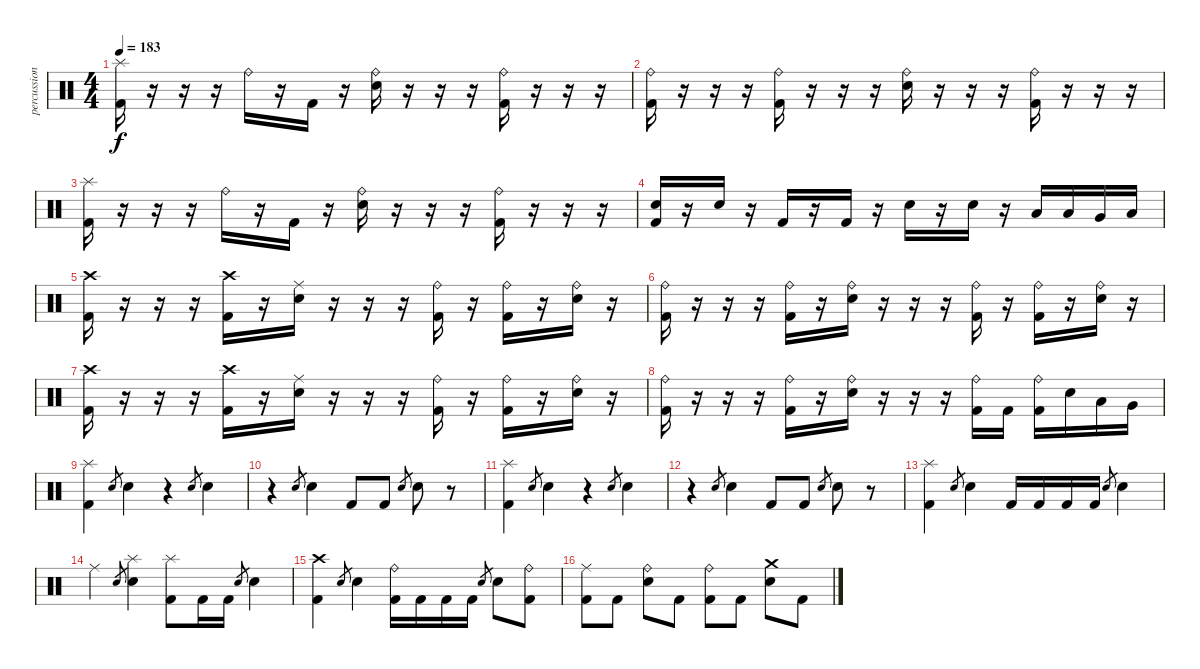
\track ("percussion" "percussion") {instrument percussion}
\staff {score}
\articulation defaults
\ts (4 4)
\tempo 183
\clef neutral
\ks c
("Splash (hit)" "Kick (hit) 2").16{dy f} r.16 r.16 r.16 "Ride (bell)".16 r.16 "Kick (hit) 2".16 r.16 ("Ride (bell)" "Electric Snare (hit)").16 r.16 r.16 r.16 ("Ride (bell)" "Kick (hit) 2").16 r.16 r.16 r.16 |
("Ride (bell)" "Kick (hit) 2").16 r.16 r.16 r.16 ("Ride (bell)" "Kick (hit) 2").16 r.16 r.16 r.16 ("Ride (bell)" "Electric Snare (hit)").16 r.16 r.16 r.16 ("Ride (bell)" "Kick (hit) 2").16 r.16 r.16 r.16 |
("Splash (hit)" "Kick (hit) 2").16 r.16 r.16 r.16 "Ride (bell)".16 r.16 "Kick (hit) 2".16 r.16 ("Ride (bell)" "Electric Snare (hit)").16 r.16 r.16 r.16 ("Ride (bell)" "Kick (hit) 2").16 r.16 r.16 r.16 |
("Electric Snare (hit)" "Kick (hit) 2").16 r.16 "Electric Snare (hit)".16 r.16 "Kick (hit) 2".16 r.16 "Kick (hit) 2".16 r.16 "Electric Snare (hit)".16 r.16 "Electric Snare (hit)".16 r.16 "Low Tom (hit)".16 "Low Tom (hit)".16 "Very Low Tom (hit)".16 "Low Floor Tom (hit)".16 |
("Crash high (hit)" "Kick (hit) 2").16 r.16 r.16 r.16 ("Crash high (hit)" "Kick (hit) 2").16 r.16 ("Ride (middle)" "Electric Snare (hit)").16 r.16 r.16 r.16 ("Ride (bell)" "Kick (hit) 2").16 r.16 ("Ride (bell)" "Kick (hit) 2").16 r.16 ("Ride (bell)" "Electric Snare (hit)").16 r.16 |
("Ride (bell)" "Kick (hit) 2").16 r.16 r.16 r.16 ("Ride (bell)" "Kick (hit) 2").16 r.16 ("Ride (bell)" "Electric Snare (hit)").16 r.16 r.16 r.16 ("Ride (bell)" "Kick (hit) 2").16 r.16 ("Ride (bell)" "Kick (hit) 2").16 r.16 ("Ride (bell)" "Electric Snare (hit)").16 r.16 |
("Crash high (hit)" "Kick (hit) 2").16 r.16 r.16 r.16 ("Crash high (hit)" "Kick (hit) 2").16 r.16 ("Ride (middle)" "Electric Snare (hit)").16 r.16 r.16 r.16 ("Ride (bell)" "Kick (hit) 2").16 r.16 ("Ride (bell)" "Kick (hit) 2").16 r.16 ("Ride (bell)" "Electric Snare (hit)").16 r.16 |
("Ride (bell)" "Kick (hit) 2").16 r.16 r.16 r.16 ("Ride (bell)" "Kick (hit) 2").16 r.16 ("Ride (bell)" "Electric Snare (hit)").16 r.16 r.16 r.16 ("Ride (bell)" "Kick (hit) 2").16 "Kick (hit) 2".16 ("Ride (bell)" "Kick (hit) 2").16 "Electric Snare (hit)".16 "Low Tom (hit)".16 "Very Low Tom (hit)".16 |
("Splash (hit)" "Kick (hit) 2").4 "Electric Snare (hit)".8{gr} "Electric Snare (hit)".4 r.4 "Electric Snare (hit)".8{gr} "Electric Snare (hit)".4 |
r.4 "Electric Snare (hit)".8{gr} "Electric Snare (hit)".4 "Kick (hit) 2".8 "Kick (hit) 2".8 "Electric Snare (hit)".8{gr} "Electric Snare (hit)".8 r.8 |
("Splash (hit)" "Kick (hit) 2").4 "Electric Snare (hit)".8{gr} "Electric Snare (hit)".4 r.4 "Electric Snare (hit)".8{gr} "Electric Snare (hit)".4 |
r.4 "Electric Snare (hit)".8{gr} "Electric Snare (hit)".4 "Kick (hit) 2".8 "Kick (hit) 2".8 "Electric Snare (hit)".8{gr} "Electric Snare (hit)".8 r.8 |
("Splash (hit)" "Kick (hit) 2").4 "Electric Snare (hit)".8{gr} "Electric Snare (hit)".4 "Kick (hit) 2".16 "Kick (hit) 2".16 "Kick (hit) 2".16 "Kick (hit) 2".16 "Electric Snare (hit)".8{gr} "Electric Snare (hit)".4 |
"Ride (middle)".4 "Electric Snare (hit)".8{gr} ("Splash (hit)" "Electric Snare (hit)").4 ("Splash (hit)" "Kick (hit) 2").8 "Kick (hit) 2".16 "Kick (hit) 2".16 "Electric Snare (hit)".8{gr} "Electric Snare (hit)".4 |
("Crash high (hit)" "Kick (hit) 2").4 "Electric Snare (hit)".8{gr} "Electric Snare (hit)".4 ("Ride (bell)" "Kick (hit) 2").16 "Kick (hit) 2".16 "Kick (hit) 2".16 "Kick (hit) 2".16 "Electric Snare (hit)".8{gr} "Electric Snare (hit)".8 ("Ride (bell)" "Kick (hit) 2").8 |
("Ride (middle)" "Kick (hit) 2").8 "Kick (hit) 2".8 ("Ride (bell)" "Electric Snare (hit)").8 "Kick (hit) 2".8 ("Ride (bell)" "Kick (hit) 2").8 "Kick (hit) 2".8 ("Crash medium (hit)" "Electric Snare (hit)").8 "Kick (hit) 2".8
